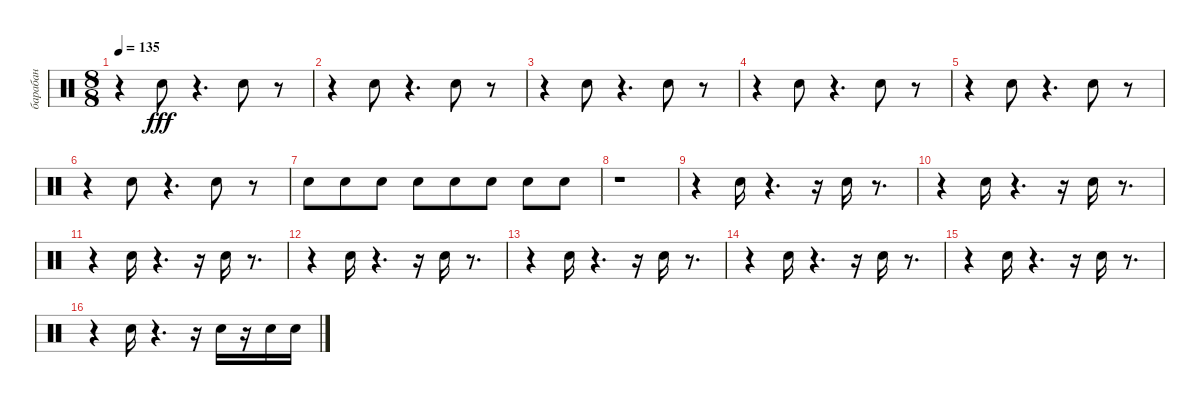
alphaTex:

\track ("барабан" "барабан") {instrument percussion}
\staff {score}
\articulation defaults
\ts (8 8)
\tempo 135
\clef neutral
\ks c
r.4{dy fff} "Snare (hit) 2".8 r.4{d} "Snare (hit) 2".8 r.8 |
r.4 "Snare (hit) 2".8 r.4{d} "Snare (hit) 2".8 r.8 |
r.4 "Snare (hit) 2".8 r.4{d} "Snare (hit) 2".8 r.8 |
r.4 "Snare (hit) 2".8 r.4{d} "Snare (hit) 2".8 r.8 |
r.4 "Snare (hit) 2".8 r.4{d} "Snare (hit) 2".8 r.8 |
r.4 "Snare (hit) 2".8 r.4{d} "Snare (hit) 2".8 r.8 |
"Snare (hit) 2".8 "Snare (hit) 2".8 "Snare (hit) 2".8 "Snare (hit) 2".8 "Snare (hit) 2".8 "Snare (hit) 2".8 "Snare (hit) 2".8 "Snare (hit) 2".8 |
r.1 |
r.4 "Snare (hit) 2".16 r.4{d} r.16 "Snare (hit) 2".16 r.8{d} |
r.4 "Snare (hit) 2".16 r.4{d} r.16 "Snare (hit) 2".16 r.8{d} |
r.4 "Snare (hit) 2".16 r.4{d} r.16 "Snare (hit) 2".16 r.8{d} |
r.4 "Snare (hit) 2".16 r.4{d} r.16 "Snare (hit) 2".16 r.8{d} |
r.4 "Snare (hit) 2".16 r.4{d} r.16 "Snare (hit) 2".16 r.8{d} |
r.4 "Snare (hit) 2".16 r.4{d} r.16 "Snare (hit) 2".16 r.8{d} |
r.4 "Snare (hit) 2".16 r.4{d} r.16 "Snare (hit) 2".16 r.8{d} |
r.4 "Snare (hit) 2".16 r.4{d} r.16 "Snare (hit) 2".16 r.16 "Snare (hit) 2".16 "Snare (hit) 2".16
